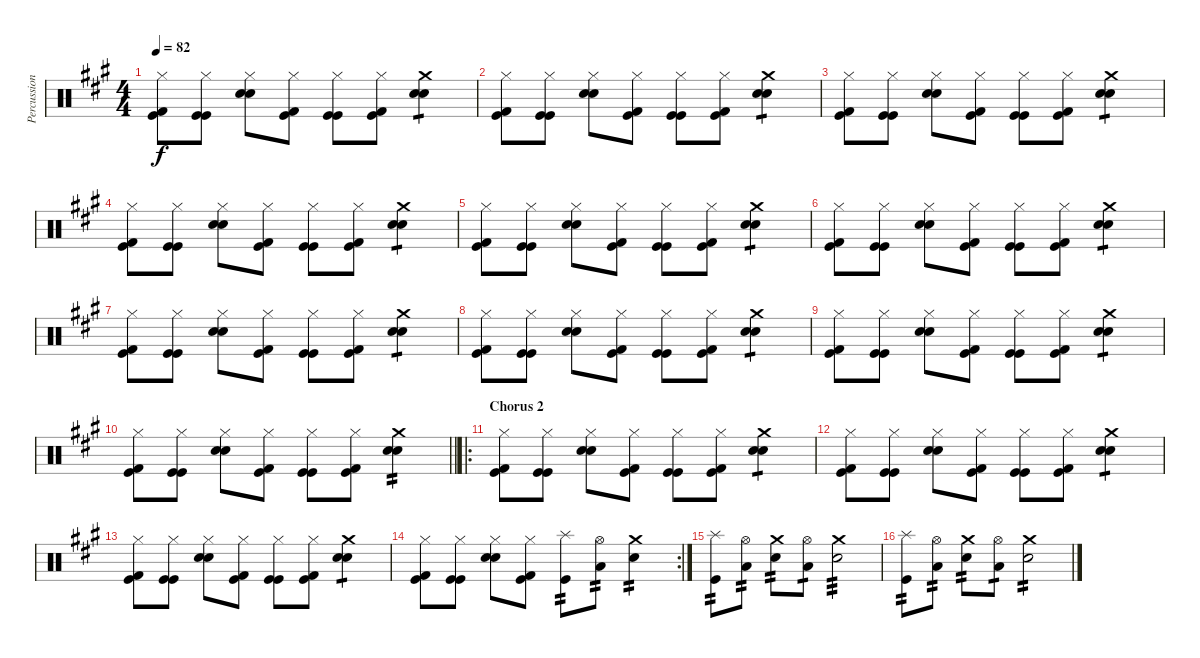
\track ("Percussion" "Percussion") {instrument percussion}
\staff {score}
\articulation defaults
\ts (4 4)
\tempo 82
\clef neutral
\ks a
("Hi-Hat (closed)" "Kick (hit)" "Kick (hit) 2").8{dy f} ("Hi-Hat (closed)" "Kick (hit)" "Kick (hit)").8 ("Hi-Hat (closed)" "Electric Snare (hit)" "Snare (hit) 2").8 ("Hi-Hat (closed)" "Kick (hit)" "Kick (hit) 2").8 ("Hi-Hat (closed)" "Kick (hit)" "Kick (hit)").8 ("Hi-Hat (closed)" "Kick (hit)" "Kick (hit) 2").8 ("Crash medium (hit)" "Electric Snare (hit)" "Snare (hit) 2").4{tp 1} |
("Hi-Hat (closed)" "Kick (hit)" "Kick (hit) 2").8 ("Hi-Hat (closed)" "Kick (hit)" "Kick (hit)").8 ("Hi-Hat (closed)" "Electric Snare (hit)" "Snare (hit) 2").8 ("Hi-Hat (closed)" "Kick (hit)" "Kick (hit) 2").8 ("Hi-Hat (closed)" "Kick (hit)" "Kick (hit)").8 ("Hi-Hat (closed)" "Kick (hit)" "Kick (hit) 2").8 ("Crash medium (hit)" "Electric Snare (hit)" "Snare (hit) 2").4{tp 1} |
("Hi-Hat (closed)" "Kick (hit)" "Kick (hit) 2").8 ("Hi-Hat (closed)" "Kick (hit)" "Kick (hit)").8 ("Hi-Hat (closed)" "Electric Snare (hit)" "Snare (hit) 2").8 ("Hi-Hat (closed)" "Kick (hit)" "Kick (hit) 2").8 ("Hi-Hat (closed)" "Kick (hit)" "Kick (hit)").8 ("Hi-Hat (closed)" "Kick (hit)" "Kick (hit) 2").8 ("Crash medium (hit)" "Electric Snare (hit)" "Snare (hit) 2").4{tp 1} |
("Hi-Hat (closed)" "Kick (hit)" "Kick (hit) 2").8 ("Hi-Hat (closed)" "Kick (hit)" "Kick (hit)").8 ("Hi-Hat (closed)" "Electric Snare (hit)" "Snare (hit) 2").8 ("Hi-Hat (closed)" "Kick (hit)" "Kick (hit) 2").8 ("Hi-Hat (closed)" "Kick (hit)" "Kick (hit)").8 ("Hi-Hat (closed)" "Kick (hit)" "Kick (hit) 2").8 ("Crash medium (hit)" "Electric Snare (hit)" "Snare (hit) 2").4{tp 1} |
("Hi-Hat (closed)" "Kick (hit)" "Kick (hit) 2").8 ("Hi-Hat (closed)" "Kick (hit)" "Kick (hit)").8 ("Hi-Hat (closed)" "Electric Snare (hit)" "Snare (hit) 2").8 ("Hi-Hat (closed)" "Kick (hit)" "Kick (hit) 2").8 ("Hi-Hat (closed)" "Kick (hit)" "Kick (hit)").8 ("Hi-Hat (closed)" "Kick (hit)" "Kick (hit) 2").8 ("Crash medium (hit)" "Electric Snare (hit)" "Snare (hit) 2").4{tp 1} |
("Hi-Hat (closed)" "Kick (hit)" "Kick (hit) 2").8 ("Hi-Hat (closed)" "Kick (hit)" "Kick (hit)").8 ("Hi-Hat (closed)" "Electric Snare (hit)" "Snare (hit) 2").8 ("Hi-Hat (closed)" "Kick (hit)" "Kick (hit) 2").8 ("Hi-Hat (closed)" "Kick (hit)" "Kick (hit)").8 ("Hi-Hat (closed)" "Kick (hit)" "Kick (hit) 2").8 ("Crash medium (hit)" "Electric Snare (hit)" "Snare (hit) 2").4{tp 1} |
("Hi-Hat (closed)" "Kick (hit)" "Kick (hit) 2").8 ("Hi-Hat (closed)" "Kick (hit)" "Kick (hit)").8 ("Hi-Hat (closed)" "Electric Snare (hit)" "Snare (hit) 2").8 ("Hi-Hat (closed)" "Kick (hit)" "Kick (hit) 2").8 ("Hi-Hat (closed)" "Kick (hit)" "Kick (hit)").8 ("Hi-Hat (closed)" "Kick (hit)" "Kick (hit) 2").8 ("Crash medium (hit)" "Electric Snare (hit)" "Snare (hit) 2").4{tp 1} |
("Hi-Hat (closed)" "Kick (hit)" "Kick (hit) 2").8 ("Hi-Hat (closed)" "Kick (hit)" "Kick (hit)").8 ("Hi-Hat (closed)" "Electric Snare (hit)" "Snare (hit) 2").8 ("Hi-Hat (closed)" "Kick (hit)" "Kick (hit) 2").8 ("Hi-Hat (closed)" "Kick (hit)" "Kick (hit)").8 ("Hi-Hat (closed)" "Kick (hit)" "Kick (hit) 2").8 ("Crash medium (hit)" "Electric Snare (hit)" "Snare (hit) 2").4{tp 1} |
("Hi-Hat (closed)" "Kick (hit)" "Kick (hit) 2").8 ("Hi-Hat (closed)" "Kick (hit)" "Kick (hit)").8 ("Hi-Hat (closed)" "Electric Snare (hit)" "Snare (hit) 2").8 ("Hi-Hat (closed)" "Kick (hit)" "Kick (hit) 2").8 ("Hi-Hat (closed)" "Kick (hit)" "Kick (hit)").8 ("Hi-Hat (closed)" "Kick (hit)" "Kick (hit) 2").8 ("Crash medium (hit)" "Electric Snare (hit)" "Snare (hit) 2").4{tp 1} |
\barLineRight lightlight
("Hi-Hat (closed)" "Kick (hit)" "Kick (hit) 2").8 ("Hi-Hat (closed)" "Kick (hit)" "Kick (hit)").8 ("Hi-Hat (closed)" "Electric Snare (hit)" "Snare (hit) 2").8 ("Hi-Hat (closed)" "Kick (hit)" "Kick (hit) 2").8 ("Hi-Hat (closed)" "Kick (hit)" "Kick (hit)").8 ("Hi-Hat (closed)" "Kick (hit)" "Kick (hit) 2").8 ("Crash medium (hit)" "Electric Snare (hit)" "Snare (hit) 2").4{tp 2} |
\ro
\section ("" "Chorus 2")
("Hi-Hat (closed)" "Kick (hit)" "Kick (hit) 2").8 ("Hi-Hat (closed)" "Kick (hit)" "Kick (hit)").8 ("Hi-Hat (closed)" "Electric Snare (hit)" "Snare (hit) 2").8 ("Hi-Hat (closed)" "Kick (hit)" "Kick (hit) 2").8 ("Hi-Hat (closed)" "Kick (hit)" "Kick (hit)").8 ("Hi-Hat (closed)" "Kick (hit)" "Kick (hit) 2").8 ("Crash medium (hit)" "Electric Snare (hit)" "Snare (hit) 2").4{tp 1} |
("Hi-Hat (closed)" "Kick (hit)" "Kick (hit) 2").8 ("Hi-Hat (closed)" "Kick (hit)" "Kick (hit)").8 ("Hi-Hat (closed)" "Electric Snare (hit)" "Snare (hit) 2").8 ("Hi-Hat (closed)" "Kick (hit)" "Kick (hit) 2").8 ("Hi-Hat (closed)" "Kick (hit)" "Kick (hit)").8 ("Hi-Hat (closed)" "Kick (hit)" "Kick (hit) 2").8 ("Crash medium (hit)" "Electric Snare (hit)" "Snare (hit) 2").4{tp 1} |
("Hi-Hat (closed)" "Kick (hit)" "Kick (hit) 2").8 ("Hi-Hat (closed)" "Kick (hit)" "Kick (hit)").8 ("Hi-Hat (closed)" "Electric Snare (hit)" "Snare (hit) 2").8 ("Hi-Hat (closed)" "Kick (hit)" "Kick (hit) 2").8 ("Hi-Hat (closed)" "Kick (hit)" "Kick (hit)").8 ("Hi-Hat (closed)" "Kick (hit)" "Kick (hit) 2").8 ("Crash medium (hit)" "Electric Snare (hit)" "Snare (hit) 2").4{tp 1} |
\rc 2
("Hi-Hat (closed)" "Kick (hit)" "Kick (hit) 2").8 ("Hi-Hat (closed)" "Kick (hit)" "Kick (hit)").8 ("Hi-Hat (closed)" "Electric Snare (hit)" "Snare (hit) 2").8 ("Hi-Hat (closed)" "Kick (hit)" "Kick (hit) 2").8 ("Splash (hit)" "Kick (hit)").8{tp 2} ("Hi-Hat (open)" "Low Floor Tom (hit)").8{tp 2} ("Crash medium (hit)" "Electric Snare (hit)").4{tp 2} |
("Splash (hit)" "Kick (hit)").8{tp 2} ("Hi-Hat (open)" "Low Floor Tom (hit)").8{tp 2} ("Crash medium (hit)" "Electric Snare (hit)").8{tp 2} ("Hi-Hat (open)" "Low Floor Tom (hit)").8{tp 1} ("Crash medium (hit)" "Electric Snare (hit)").2{tp 3} |
("Splash (hit)" "Kick (hit)").8{tp 2} ("Hi-Hat (open)" "Low Floor Tom (hit)").8{tp 2} ("Crash medium (hit)" "Electric Snare (hit)").8{tp 2} ("Hi-Hat (open)" "Low Floor Tom (hit)").8{tp 1} ("Crash medium (hit)" "Electric Snare (hit)").2{tp 2}
